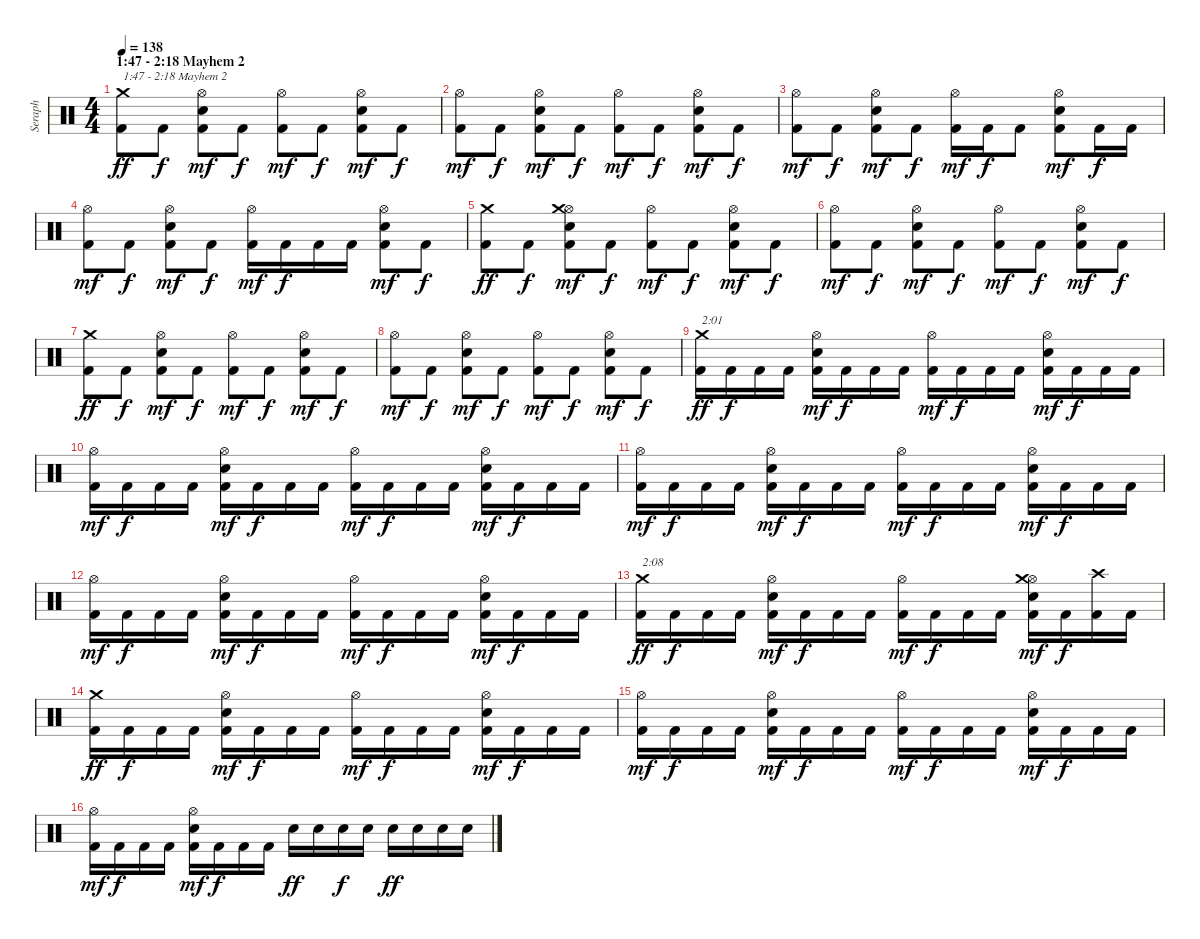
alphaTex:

\track ("Seraph" "Seraph") {instrument percussion}
\staff {score}
\articulation defaults
\ts (4 4)
\section ("" "1:47 - 2:18 Mayhem 2")
\tempo 138
\clef neutral
\ks c
("Kick (hit) 2" "Crash medium (hit)").8{txt "1:47 - 2:18 Mayhem 2" dy ff} "Kick (hit) 2".8{dy f} ("Kick (hit) 2" "Electric Snare (hit)" "Hi-Hat (open)").8{dy mf} "Kick (hit) 2".8{dy f} ("Kick (hit) 2" "Hi-Hat (open)").8{dy mf} "Kick (hit) 2".8{dy f} ("Kick (hit) 2" "Electric Snare (hit)" "Hi-Hat (open)").8{dy mf} "Kick (hit) 2".8{dy f} |
("Kick (hit) 2" "Hi-Hat (open)").8{dy mf} "Kick (hit) 2".8{dy f} ("Kick (hit) 2" "Electric Snare (hit)" "Hi-Hat (open)").8{dy mf} "Kick (hit) 2".8{dy f} ("Kick (hit) 2" "Hi-Hat (open)").8{dy mf} "Kick (hit) 2".8{dy f} ("Kick (hit) 2" "Electric Snare (hit)" "Hi-Hat (open)").8{dy mf} "Kick (hit) 2".8{dy f} |
("Kick (hit) 2" "Hi-Hat (open)").8{dy mf} "Kick (hit) 2".8{dy f} ("Kick (hit) 2" "Electric Snare (hit)" "Hi-Hat (open)").8{dy mf} "Kick (hit) 2".8{dy f} ("Kick (hit) 2" "Hi-Hat (open)").16{dy mf} "Kick (hit) 2".16{dy f} "Kick (hit) 2".8 ("Kick (hit) 2" "Electric Snare (hit)" "Hi-Hat (open)").8{dy mf} "Kick (hit) 2".16{dy f} "Kick (hit) 2".16 |
("Kick (hit) 2" "Hi-Hat (open)").8{dy mf} "Kick (hit) 2".8{dy f} ("Kick (hit) 2" "Electric Snare (hit)" "Hi-Hat (open)").8{dy mf} "Kick (hit) 2".8{dy f} ("Kick (hit) 2" "Hi-Hat (open)").16{dy mf} "Kick (hit) 2".16{dy f} "Kick (hit) 2".16 "Kick (hit) 2".16 ("Kick (hit) 2" "Electric Snare (hit)" "Hi-Hat (open)").8{dy mf} "Kick (hit) 2".8{dy f} |
("Kick (hit) 2" "Crash medium (hit)").8{dy ff} "Kick (hit) 2".8{dy f} ("Kick (hit) 2" "Electric Snare (hit)" "Hi-Hat (open)" "Crash medium (hit)").8{dy mf} "Kick (hit) 2".8{dy f} ("Kick (hit) 2" "Hi-Hat (open)").8{dy mf} "Kick (hit) 2".8{dy f} ("Kick (hit) 2" "Electric Snare (hit)" "Hi-Hat (open)").8{dy mf} "Kick (hit) 2".8{dy f} |
("Kick (hit) 2" "Hi-Hat (open)").8{dy mf} "Kick (hit) 2".8{dy f} ("Kick (hit) 2" "Electric Snare (hit)" "Hi-Hat (open)").8{dy mf} "Kick (hit) 2".8{dy f} ("Kick (hit) 2" "Hi-Hat (open)").8{dy mf} "Kick (hit) 2".8{dy f} ("Kick (hit) 2" "Electric Snare (hit)" "Hi-Hat (open)").8{dy mf} "Kick (hit) 2".8{dy f} |
("Kick (hit) 2" "Crash medium (hit)").8{dy ff} "Kick (hit) 2".8{dy f} ("Kick (hit) 2" "Electric Snare (hit)" "Hi-Hat (open)").8{dy mf} "Kick (hit) 2".8{dy f} ("Kick (hit) 2" "Hi-Hat (open)").8{dy mf} "Kick (hit) 2".8{dy f} ("Kick (hit) 2" "Electric Snare (hit)" "Hi-Hat (open)").8{dy mf} "Kick (hit) 2".8{dy f} |
("Kick (hit) 2" "Hi-Hat (open)").8{dy mf} "Kick (hit) 2".8{dy f} ("Kick (hit) 2" "Electric Snare (hit)" "Hi-Hat (open)").8{dy mf} "Kick (hit) 2".8{dy f} ("Kick (hit) 2" "Hi-Hat (open)").8{dy mf} "Kick (hit) 2".8{dy f} ("Kick (hit) 2" "Electric Snare (hit)" "Hi-Hat (open)").8{dy mf} "Kick (hit) 2".8{dy f} |
("Kick (hit) 2" "Crash medium (hit)").16{txt "2:01" dy ff} "Kick (hit) 2".16{dy f} "Kick (hit) 2".16 "Kick (hit) 2".16 ("Kick (hit) 2" "Electric Snare (hit)" "Hi-Hat (open)").16{dy mf} "Kick (hit) 2".16{dy f} "Kick (hit) 2".16 "Kick (hit) 2".16 ("Kick (hit) 2" "Hi-Hat (open)").16{dy mf} "Kick (hit) 2".16{dy f} "Kick (hit) 2".16 "Kick (hit) 2".16 ("Kick (hit) 2" "Electric Snare (hit)" "Hi-Hat (open)").16{dy mf} "Kick (hit) 2".16{dy f} "Kick (hit) 2".16 "Kick (hit) 2".16 |
("Kick (hit) 2" "Hi-Hat (open)").16{dy mf} "Kick (hit) 2".16{dy f} "Kick (hit) 2".16 "Kick (hit) 2".16 ("Kick (hit) 2" "Electric Snare (hit)" "Hi-Hat (open)").16{dy mf} "Kick (hit) 2".16{dy f} "Kick (hit) 2".16 "Kick (hit) 2".16 ("Kick (hit) 2" "Hi-Hat (open)").16{dy mf} "Kick (hit) 2".16{dy f} "Kick (hit) 2".16 "Kick (hit) 2".16 ("Kick (hit) 2" "Electric Snare (hit)" "Hi-Hat (open)").16{dy mf} "Kick (hit) 2".16{dy f} "Kick (hit) 2".16 "Kick (hit) 2".16 |
("Kick (hit) 2" "Hi-Hat (open)").16{dy mf} "Kick (hit) 2".16{dy f} "Kick (hit) 2".16 "Kick (hit) 2".16 ("Kick (hit) 2" "Electric Snare (hit)" "Hi-Hat (open)").16{dy mf} "Kick (hit) 2".16{dy f} "Kick (hit) 2".16 "Kick (hit) 2".16 ("Kick (hit) 2" "Hi-Hat (open)").16{dy mf} "Kick (hit) 2".16{dy f} "Kick (hit) 2".16 "Kick (hit) 2".16 ("Kick (hit) 2" "Electric Snare (hit)" "Hi-Hat (open)").16{dy mf} "Kick (hit) 2".16{dy f} "Kick (hit) 2".16 "Kick (hit) 2".16 |
("Kick (hit) 2" "Hi-Hat (open)").16{dy mf} "Kick (hit) 2".16{dy f} "Kick (hit) 2".16 "Kick (hit) 2".16 ("Kick (hit) 2" "Electric Snare (hit)" "Hi-Hat (open)").16{dy mf} "Kick (hit) 2".16{dy f} "Kick (hit) 2".16 "Kick (hit) 2".16 ("Kick (hit) 2" "Hi-Hat (open)").16{dy mf} "Kick (hit) 2".16{dy f} "Kick (hit) 2".16 "Kick (hit) 2".16 ("Kick (hit) 2" "Electric Snare (hit)" "Hi-Hat (open)").16{dy mf} "Kick (hit) 2".16{dy f} "Kick (hit) 2".16 "Kick (hit) 2".16 |
("Kick (hit) 2" "Crash medium (hit)").16{txt "2:08" dy ff} "Kick (hit) 2".16{dy f} "Kick (hit) 2".16 "Kick (hit) 2".16 ("Kick (hit) 2" "Electric Snare (hit)" "Hi-Hat (open)").16{dy mf} "Kick (hit) 2".16{dy f} "Kick (hit) 2".16 "Kick (hit) 2".16 ("Kick (hit) 2" "Hi-Hat (open)").16{dy mf} "Kick (hit) 2".16{dy f} "Kick (hit) 2".16 "Kick (hit) 2".16 ("Kick (hit) 2" "Electric Snare (hit)" "Hi-Hat (open)" "Crash medium (hit)").16{dy mf} "Kick (hit) 2".16{dy f} ("Kick (hit) 2" "Crash high (hit)").16 "Kick (hit) 2".16 |
("Kick (hit) 2" "Crash medium (hit)").16{dy ff} "Kick (hit) 2".16{dy f} "Kick (hit) 2".16 "Kick (hit) 2".16 ("Kick (hit) 2" "Electric Snare (hit)" "Hi-Hat (open)").16{dy mf} "Kick (hit) 2".16{dy f} "Kick (hit) 2".16 "Kick (hit) 2".16 ("Kick (hit) 2" "Hi-Hat (open)").16{dy mf} "Kick (hit) 2".16{dy f} "Kick (hit) 2".16 "Kick (hit) 2".16 ("Kick (hit) 2" "Electric Snare (hit)" "Hi-Hat (open)").16{dy mf} "Kick (hit) 2".16{dy f} "Kick (hit) 2".16 "Kick (hit) 2".16 |
("Kick (hit) 2" "Hi-Hat (open)").16{dy mf} "Kick (hit) 2".16{dy f} "Kick (hit) 2".16 "Kick (hit) 2".16 ("Kick (hit) 2" "Electric Snare (hit)" "Hi-Hat (open)").16{dy mf} "Kick (hit) 2".16{dy f} "Kick (hit) 2".16 "Kick (hit) 2".16 ("Kick (hit) 2" "Hi-Hat (open)").16{dy mf} "Kick (hit) 2".16{dy f} "Kick (hit) 2".16 "Kick (hit) 2".16 ("Kick (hit) 2" "Electric Snare (hit)" "Hi-Hat (open)").16{dy mf} "Kick (hit) 2".16{dy f} "Kick (hit) 2".16 "Kick (hit) 2".16 |
("Kick (hit) 2" "Hi-Hat (open)").16{dy mf} "Kick (hit) 2".16{dy f} "Kick (hit) 2".16 "Kick (hit) 2".16 ("Kick (hit) 2" "Electric Snare (hit)" "Hi-Hat (open)").16{dy mf} "Kick (hit) 2".16{dy f} "Kick (hit) 2".16 "Kick (hit) 2".16 "Electric Snare (hit)".16{dy ff} "Electric Snare (hit)".16 "Electric Snare (hit)".16{dy f} "Electric Snare (hit)".16 "Electric Snare (hit)".16{dy ff} "Electric Snare (hit)".16 "Electric Snare (hit)".16 "Electric Snare (hit)".16
